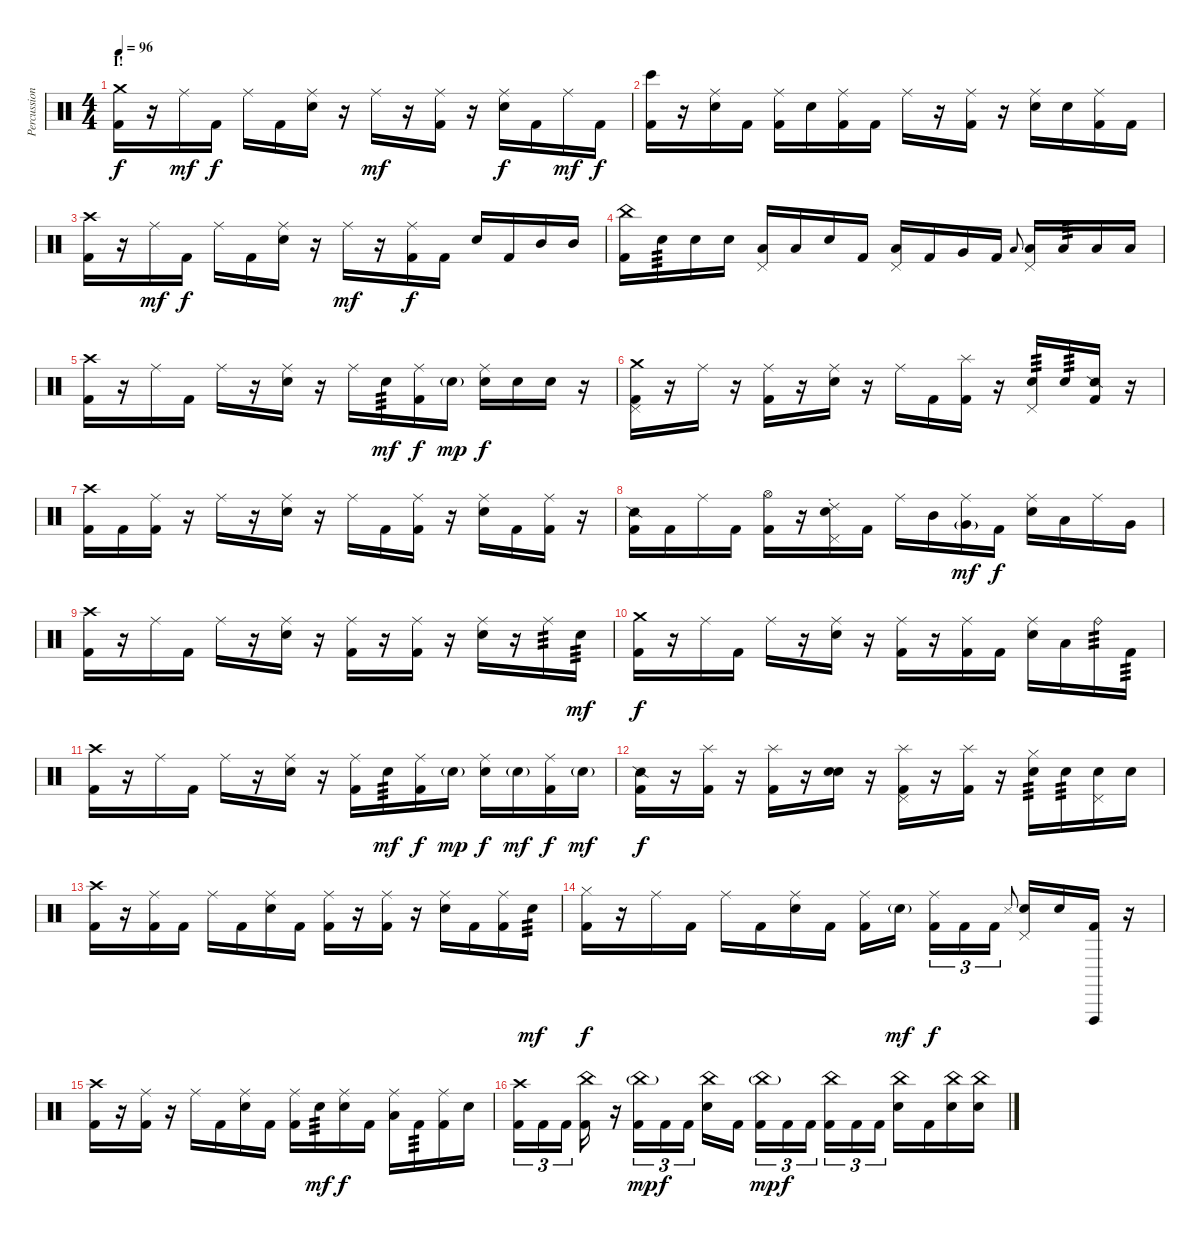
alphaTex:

\track ("Percussion" "Percussion") {instrument percussion}
\staff {score}
\articulation defaults
\ts (4 4)
\section ("" "I!")
\tempo 96
\clef neutral
\ks c
("Crash medium (hit)" "Kick (hit) 2").16{dy f} r.16 "Ride (middle)".16{dy mf} "Kick (hit) 2".16{dy f} "Ride (middle)".16 "Kick (hit) 2".16 ("Ride (middle)" "Snare (hit) 2").16 r.16 "Ride (middle)".16{dy mf} r.16 ("Ride (middle)" "Kick (hit) 2").16 r.16 ("Ride (middle)" "Snare (hit) 2").16{dy f} "Kick (hit) 2".16 "Ride (middle)".16{dy mf} "Kick (hit) 2".16{dy f} |
("Bongo High (hit)" "Kick (hit) 2").16 r.16 ("Ride (middle)" "Snare (hit) 2").16 "Kick (hit) 2".16 ("Ride (middle)" "Kick (hit) 2").16 "Snare (hit) 2".16 ("Ride (middle)" "Kick (hit) 2").16 "Kick (hit) 2".16 "Ride (middle)".16 r.16 ("Ride (middle)" "Kick (hit) 2").16 r.16 ("Ride (middle)" "Snare (hit) 2").16 "Snare (hit) 2".16 ("Ride (middle)" "Kick (hit) 2").16 "Kick (hit) 2".16 |
("Crash high (hit)" "Kick (hit) 2").16 r.16 "Ride (middle)".16{dy mf} "Kick (hit) 2".16{dy f} "Ride (middle)".16 "Kick (hit) 2".16 ("Ride (middle)" "Snare (hit) 2").16 r.16 "Ride (middle)".16{dy mf} r.16 ("Ride (middle)" "Kick (hit) 2").16{dy f} "Kick (hit) 2".16 "Snare (hit) 2".16 "Kick (hit) 2".16 "Mid Tom (hit)".16 "Mid Tom (hit)".16 |
("China (hit)" "Kick (hit) 2").16 "Snare (hit) 2".16{tp 3} "Snare (hit) 2".16 "Snare (hit) 2".16 ("Pedal Hi-Hat (hit)" "Low Tom (hit)").16 "Low Tom (hit)".16 "Snare (hit) 2".16 "Kick (hit) 2".16 ("Pedal Hi-Hat (hit)" "Low Tom (hit)").16 "Kick (hit) 2".16 "Very Low Tom (hit)".16 "Kick (hit) 2".16 "Low Floor Tom (hit)".8{gr onbeat} ("Pedal Hi-Hat (hit)" "Low Floor Tom (hit)").16 "Low Floor Tom (hit)".16{tp 3} "Low Floor Tom (hit)".16 "Low Floor Tom (hit)".16 |
("Crash high (hit)" "Kick (hit) 2").16 r.16 "Ride (middle)".16 "Kick (hit) 2".16 "Ride (middle)".16 r.16 ("Ride (middle)" "Snare (hit) 2").16 r.16 "Ride (middle)".16 "Snare (hit) 2".16{tp 3 dy mf} ("Ride (middle)" "Kick (hit) 2").16{dy f} "Snare (hit) 2"{g}.16{dy mp} ("Ride (middle)" "Snare (hit) 2").16{dy f} "Snare (hit) 2".16 "Snare (hit)".16 r.16 |
("Crash medium (hit)" "Pedal Hi-Hat (hit)" "Kick (hit) 2").16 r.16 "Ride (middle)".16 r.16 ("Ride (middle)" "Kick (hit) 2").16 r.16 ("Ride (middle)" "Snare (hit) 2").16 r.16 "Ride (middle)".16 "Kick (hit) 2".16 ("Splash (hit)" "Kick (hit) 2").16 r.16 ("Pedal Hi-Hat (hit)" "Snare (hit) 2").16{tp 3} "Snare (hit) 2".16{tp 3} ("Snare (side stick) 2" "Kick (hit) 2").16 r.16 |
("Crash high (hit)" "Kick (hit) 2").16 "Kick (hit) 2".16 ("Ride (middle)" "Kick (hit) 2").16 r.16 "Ride (middle)".16 r.16 ("Ride (middle)" "Snare (hit) 2").16 r.16 "Ride (middle)".16 "Kick (hit) 2".16 ("Ride (middle)" "Kick (hit) 2").16 r.16 ("Ride (middle)" "Snare (hit) 2").16 "Kick (hit) 2".16 ("Ride (middle)" "Kick (hit) 2").16 r.16 |
("Snare (side stick) 2" "Kick (hit) 2").16 "Kick (hit) 2".16 "Ride (middle)".16 "Kick (hit) 2".16 ("Hi-Hat (open)" "Kick (hit) 2").16 r.16 ("Ride (choke) 2" "Pedal Hi-Hat (hit)" "Snare (hit) 2").16 "Kick (hit) 2".16 "Ride (middle)".16 "Mid Tom (hit)".16 ("Ride (middle)" "Very Low Tom (hit)"{g}).16{dy mf} "Kick (hit) 2".16{dy f} ("Ride (middle)" "Snare (hit) 2").16 "Low Tom (hit)".16 "Ride (middle)".16 "Very Low Tom (hit)".16 |
("Crash high (hit)" "Kick (hit) 2").16 r.16 "Ride (middle)".16 "Kick (hit) 2".16 "Ride (middle)".16 r.16 ("Ride (middle)" "Snare (hit) 2").16 r.16 ("Ride (middle)" "Kick (hit) 2").16 r.16 ("Ride (middle)" "Kick (hit) 2").16 r.16 ("Ride (middle)" "Snare (hit) 2").16 r.16 "Ride (middle)".16{tp 3} "Snare (hit) 2".16{tp 3 dy mf} |
("Crash medium (hit)" "Kick (hit) 2").16{dy f} r.16 "Ride (middle)".16 "Kick (hit) 2".16 "Ride (middle)".16 r.16 ("Ride (middle)" "Snare (hit) 2").16 r.16 ("Ride (middle)" "Kick (hit) 2").16 r.16 ("Ride (middle)" "Kick (hit) 2").16 "Kick (hit) 2".16 ("Ride (middle)" "Snare (hit) 2").16 "Low Tom (hit)".16 "Ride (bell)".16{tp 3} "Kick (hit) 2".16{tp 3} |
("Crash high (hit)" "Kick (hit) 2").16 r.16 "Ride (middle)".16 "Kick (hit) 2".16 "Ride (middle)".16 r.16 ("Ride (middle)" "Snare (hit) 2").16 r.16 ("Ride (middle)" "Kick (hit) 2").16 "Snare (hit) 2".16{tp 3 dy mf} ("Ride (middle)" "Kick (hit) 2").16{dy f} "Snare (hit) 2"{g}.16{dy mp} ("Ride (middle)" "Snare (hit) 2").16{dy f} "Snare (hit) 2"{g}.16{dy mf} ("Ride (middle)" "Kick (hit) 2").16{dy f} "Snare (hit) 2"{g}.16{dy mf} |
("Snare (side stick) 2" "Kick (hit) 2").16{dy f} r.16 ("Splash (hit)" "Kick (hit) 2").16 r.16 ("Splash (hit)" "Kick (hit) 2").16 r.16 ("Snare (hit)" "Snare (hit) 2").16 r.16 ("Splash (hit)" "Pedal Hi-Hat (hit)" "Kick (hit) 2").16 r.16 ("Splash (hit)" "Kick (hit) 2").16 r.16 ("Hi-Hat (closed)" "Snare (hit) 2").16{tp 3} "Snare (hit) 2".16{tp 3} ("Pedal Hi-Hat (hit)" "Snare (hit) 2").16 "Snare (hit) 2".16 |
("Crash high (hit)" "Kick (hit) 2").16 r.16 ("Ride (middle)" "Kick (hit) 2").16 "Kick (hit) 2".16 "Ride (middle)".16 "Kick (hit) 2".16 ("Ride (middle)" "Snare (hit) 2").16 "Kick (hit) 2".16 ("Ride (middle)" "Kick (hit) 2").16 r.16 ("Ride (middle)" "Kick (hit) 2").16 r.16 ("Ride (middle)" "Snare (hit) 2").16 "Kick (hit) 2".16 ("Ride (middle)" "Kick (hit) 2").16 "Snare (hit) 2".16{tp 3 dy mf} |
("Hi-Hat (closed)" "Kick (hit) 2").16{dy f} r.16 "Ride (middle)".16 "Kick (hit) 2".16 "Ride (middle)".16 "Kick (hit) 2".16 ("Ride (middle)" "Snare (hit) 2").16 "Kick (hit) 2".16 ("Ride (middle)" "Kick (hit) 2").16 "Snare (hit) 2"{g}.16{dy mf beam splitsecondary} ("Ride (middle)" "Kick (hit) 2").16{tu (3 2) dy f} "Kick (hit) 2".16{tu (3 2)} "Kick (hit) 2".16{tu (3 2)} "Metronome (hit)".8{gr onbeat} ("Pedal Hi-Hat (hit)" "Snare (hit) 2").16 "Snare (hit) 2".16 ("Vibraslap (hit)" "Kick (hit) 2").16 r.16 |
("Crash high (hit)" "Kick (hit) 2").16 r.16 ("Ride (middle)" "Kick (hit) 2").16 r.16 "Ride (middle)".16 "Kick (hit) 2".16 ("Ride (middle)" "Snare (hit) 2").16 "Kick (hit) 2".16 ("Ride (middle)" "Kick (hit) 2").16 "Snare (hit) 2".16{tp 3 dy mf} ("Ride (middle)" "Snare (hit) 2").16{dy f} "Kick (hit) 2".16 ("Ride (middle)" "Low Tom (hit)").16 "Kick (hit) 2".16{tp 3} ("Ride (middle)" "Kick (hit) 2").16 "Snare (hit) 2".16 |
("Crash high (hit)" "Kick (hit) 2").16{tu (3 2)} "Kick (hit) 2".16{tu (3 2)} "Kick (hit) 2".16{tu (3 2) beam splitsecondary} ("China (hit)" "Kick (hit) 2").16 r.16 ("China (hit)"{g} "Kick (hit) 2").16{tu (3 2) dy mp} "Kick (hit) 2".16{tu (3 2) dy f} "Kick (hit) 2".16{tu (3 2) beam splitsecondary} ("China (hit)" "Snare (hit) 2").16 "Kick (hit) 2".16 ("China (hit)"{g} "Kick (hit) 2").16{tu (3 2) dy mp} "Kick (hit) 2".16{tu (3 2) dy f} "Kick (hit) 2".16{tu (3 2) beam splitsecondary} ("China (hit)" "Kick (hit) 2").16{tu (3 2)} "Kick (hit) 2".16{tu (3 2)} "Kick (hit) 2".16{tu (3 2)} ("China (hit)" "Snare (hit) 2").16 "Kick (hit) 2".16 ("China (hit)" "Snare (hit) 2").16 ("China (hit)" "Snare (hit) 2").16
